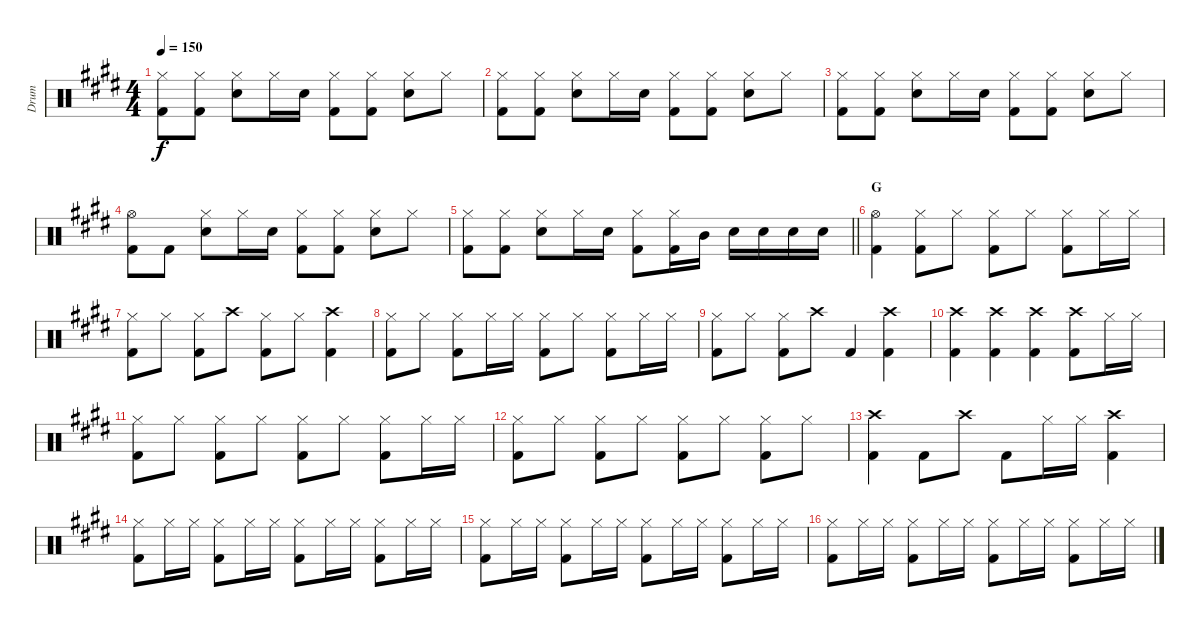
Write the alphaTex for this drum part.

\track ("Drum" "Drum") {instrument percussion}
\staff {score}
\articulation defaults
\ts (4 4)
\tempo 150
\clef neutral
\ks c#minor
("Hi-Hat (closed)" "Kick (hit) 2").8{dy f} ("Hi-Hat (closed)" "Kick (hit) 2").8 ("Hi-Hat (closed)" "Snare (hit) 2").8 "Hi-Hat (closed)".16 "Snare (hit) 2".16 ("Hi-Hat (closed)" "Kick (hit) 2").8 ("Hi-Hat (closed)" "Kick (hit) 2").8 ("Hi-Hat (closed)" "Snare (hit) 2").8 "Hi-Hat (closed)".8 |
("Hi-Hat (closed)" "Kick (hit) 2").8 ("Hi-Hat (closed)" "Kick (hit) 2").8 ("Hi-Hat (closed)" "Snare (hit) 2").8 "Hi-Hat (closed)".16 "Snare (hit) 2".16 ("Hi-Hat (closed)" "Kick (hit) 2").8 ("Hi-Hat (closed)" "Kick (hit) 2").8 ("Hi-Hat (closed)" "Snare (hit) 2").8 "Hi-Hat (closed)".8 |
("Hi-Hat (closed)" "Kick (hit) 2").8 ("Hi-Hat (closed)" "Kick (hit) 2").8 ("Hi-Hat (closed)" "Snare (hit) 2").8 "Hi-Hat (closed)".16 "Snare (hit) 2".16 ("Hi-Hat (closed)" "Kick (hit) 2").8 ("Hi-Hat (closed)" "Kick (hit) 2").8 ("Hi-Hat (closed)" "Snare (hit) 2").8 "Hi-Hat (closed)".8 |
("Hi-Hat (open)" "Kick (hit) 2").8 "Kick (hit) 2".8 ("Hi-Hat (closed)" "Snare (hit) 2").8 "Hi-Hat (closed)".16 "Snare (hit) 2".16 ("Hi-Hat (closed)" "Kick (hit) 2").8 ("Hi-Hat (closed)" "Kick (hit) 2").8 ("Hi-Hat (closed)" "Snare (hit) 2").8 "Hi-Hat (closed)".8 |
\barLineRight lightlight
("Hi-Hat (closed)" "Kick (hit) 2").8 ("Hi-Hat (closed)" "Kick (hit) 2").8 ("Hi-Hat (closed)" "Snare (hit) 2").8 "Hi-Hat (closed)".16 "Snare (hit) 2".16 ("Hi-Hat (closed)" "Kick (hit) 2").8 ("Hi-Hat (closed)" "Kick (hit) 2").16 "Mid Tom (hit)".16 "Snare (hit) 2".16 "Snare (hit) 2".16 "Snare (hit) 2".16 "Snare (hit) 2".16 |
\section ("" "G")
("Hi-Hat (open)" "Kick (hit) 2").4 ("Hi-Hat (closed)" "Kick (hit) 2").8 "Hi-Hat (closed)".8 ("Hi-Hat (closed)" "Kick (hit) 2").8 "Hi-Hat (closed)".8 ("Hi-Hat (closed)" "Kick (hit) 2").8 "Hi-Hat (closed)".16 "Hi-Hat (closed)".16 |
("Hi-Hat (closed)" "Kick (hit) 2").8 "Hi-Hat (closed)".8 ("Hi-Hat (closed)" "Kick (hit) 2").8 "Crash high (hit)".8 ("Hi-Hat (closed)" "Kick (hit) 2").8 "Hi-Hat (closed)".8 ("Crash high (hit)" "Kick (hit) 2").4 |
("Hi-Hat (closed)" "Kick (hit) 2").8 "Hi-Hat (closed)".8 ("Hi-Hat (closed)" "Kick (hit) 2").8 "Hi-Hat (closed)".16 "Hi-Hat (closed)".16 ("Hi-Hat (closed)" "Kick (hit) 2").8 "Hi-Hat (closed)".8 ("Hi-Hat (closed)" "Kick (hit) 2").8 "Hi-Hat (closed)".16 "Hi-Hat (closed)".16 |
("Hi-Hat (closed)" "Kick (hit) 2").8 "Hi-Hat (closed)".8 ("Hi-Hat (closed)" "Kick (hit) 2").8 "Crash high (hit)".8 "Kick (hit) 2".4 ("Crash high (hit)" "Kick (hit) 2").4 |
("Crash high (hit)" "Kick (hit) 2").4 ("Crash high (hit)" "Kick (hit) 2").4 ("Crash high (hit)" "Kick (hit) 2").4 ("Crash high (hit)" "Kick (hit) 2").8 "Hi-Hat (closed)".16 "Hi-Hat (closed)".16 |
("Hi-Hat (closed)" "Kick (hit) 2").8 "Hi-Hat (closed)".8 ("Hi-Hat (closed)" "Kick (hit) 2").8 "Hi-Hat (closed)".8 ("Hi-Hat (closed)" "Kick (hit) 2").8 "Hi-Hat (closed)".8 ("Hi-Hat (closed)" "Kick (hit) 2").8 "Hi-Hat (closed)".16 "Hi-Hat (closed)".16 |
("Hi-Hat (closed)" "Kick (hit) 2").8 "Hi-Hat (closed)".8 ("Hi-Hat (closed)" "Kick (hit) 2").8 "Hi-Hat (closed)".8 ("Hi-Hat (closed)" "Kick (hit) 2").8 "Hi-Hat (closed)".8 ("Hi-Hat (closed)" "Kick (hit) 2").8 "Hi-Hat (closed)".8 |
("Crash high (hit)" "Kick (hit) 2").4 "Kick (hit) 2".8 "Crash high (hit)".8 "Kick (hit) 2".8 "Hi-Hat (closed)".16 "Hi-Hat (closed)".16 ("Crash high (hit)" "Kick (hit) 2").4 |
("Hi-Hat (closed)" "Kick (hit) 2").8 "Hi-Hat (closed)".16 "Hi-Hat (closed)".16 ("Hi-Hat (closed)" "Kick (hit) 2").8 "Hi-Hat (closed)".16 "Hi-Hat (closed)".16 ("Hi-Hat (closed)" "Kick (hit) 2").8 "Hi-Hat (closed)".16 "Hi-Hat (closed)".16 ("Hi-Hat (closed)" "Kick (hit) 2").8 "Hi-Hat (closed)".16 "Hi-Hat (closed)".16 |
("Hi-Hat (closed)" "Kick (hit) 2").8 "Hi-Hat (closed)".16 "Hi-Hat (closed)".16 ("Hi-Hat (closed)" "Kick (hit) 2").8 "Hi-Hat (closed)".16 "Hi-Hat (closed)".16 ("Hi-Hat (closed)" "Kick (hit) 2").8 "Hi-Hat (closed)".16 "Hi-Hat (closed)".16 ("Hi-Hat (closed)" "Kick (hit) 2").8 "Hi-Hat (closed)".16 "Hi-Hat (closed)".16 |
("Hi-Hat (closed)" "Kick (hit) 2").8 "Hi-Hat (closed)".16 "Hi-Hat (closed)".16 ("Hi-Hat (closed)" "Kick (hit) 2").8 "Hi-Hat (closed)".16 "Hi-Hat (closed)".16 ("Hi-Hat (closed)" "Kick (hit) 2").8 "Hi-Hat (closed)".16 "Hi-Hat (closed)".16 ("Hi-Hat (closed)" "Kick (hit) 2").8 "Hi-Hat (closed)".16 "Hi-Hat (closed)".16
